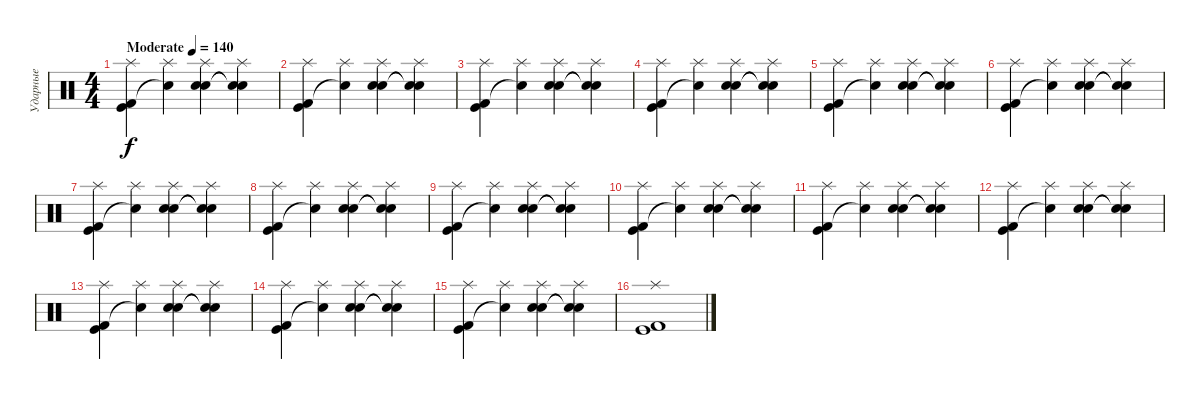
\track ("Ударные" "Ударные") {instrument percussion}
\staff {score}
\articulation defaults
\ts (4 4)
\tempo (140 "Moderate")
\clef neutral
\ks c
("Splash (hit)" "Kick (hit) 2" "Kick (hit)").4{dy f} ("Splash (hit)" "Snare (hit)"{t}).4 ("Splash (hit)" "Electric Snare (hit)" "Snare (hit) 2").4 ("Splash (hit)" "Snare (hit)"{t} "Snare (hit)"{t}).4 |
("Splash (hit)" "Kick (hit) 2" "Kick (hit)").4 ("Splash (hit)" "Snare (hit)"{t}).4 ("Splash (hit)" "Electric Snare (hit)" "Snare (hit) 2").4 ("Splash (hit)" "Snare (hit)"{t} "Snare (hit)"{t}).4 |
("Splash (hit)" "Kick (hit) 2" "Kick (hit)").4 ("Splash (hit)" "Snare (hit)"{t}).4 ("Splash (hit)" "Electric Snare (hit)" "Snare (hit) 2").4 ("Splash (hit)" "Snare (hit)"{t} "Snare (hit)"{t}).4 |
("Splash (hit)" "Kick (hit) 2" "Kick (hit)").4 ("Splash (hit)" "Snare (hit)"{t}).4 ("Splash (hit)" "Electric Snare (hit)" "Snare (hit) 2").4 ("Splash (hit)" "Snare (hit)"{t} "Snare (hit)"{t}).4 |
("Splash (hit)" "Kick (hit) 2" "Kick (hit)").4 ("Splash (hit)" "Snare (hit)"{t}).4 ("Splash (hit)" "Electric Snare (hit)" "Snare (hit) 2").4 ("Splash (hit)" "Snare (hit)"{t} "Snare (hit)"{t}).4 |
("Splash (hit)" "Kick (hit) 2" "Kick (hit)").4 ("Splash (hit)" "Snare (hit)"{t}).4 ("Splash (hit)" "Electric Snare (hit)" "Snare (hit) 2").4 ("Splash (hit)" "Snare (hit)"{t} "Snare (hit)"{t}).4 |
("Splash (hit)" "Kick (hit) 2" "Kick (hit)").4 ("Splash (hit)" "Snare (hit)"{t}).4 ("Splash (hit)" "Electric Snare (hit)" "Snare (hit) 2").4 ("Splash (hit)" "Snare (hit)"{t} "Snare (hit)"{t}).4 |
("Splash (hit)" "Kick (hit) 2" "Kick (hit)").4 ("Splash (hit)" "Snare (hit)"{t}).4 ("Splash (hit)" "Electric Snare (hit)" "Snare (hit) 2").4 ("Splash (hit)" "Snare (hit)"{t} "Snare (hit)"{t}).4 |
("Splash (hit)" "Kick (hit) 2" "Kick (hit)").4 ("Splash (hit)" "Snare (hit)"{t}).4 ("Splash (hit)" "Electric Snare (hit)" "Snare (hit) 2").4 ("Splash (hit)" "Snare (hit)"{t} "Snare (hit)"{t}).4 |
("Splash (hit)" "Kick (hit) 2" "Kick (hit)").4 ("Splash (hit)" "Snare (hit)"{t}).4 ("Splash (hit)" "Electric Snare (hit)" "Snare (hit) 2").4 ("Splash (hit)" "Snare (hit)"{t} "Snare (hit)"{t}).4 |
("Splash (hit)" "Kick (hit) 2" "Kick (hit)").4 ("Splash (hit)" "Snare (hit)"{t}).4 ("Splash (hit)" "Electric Snare (hit)" "Snare (hit) 2").4 ("Splash (hit)" "Snare (hit)"{t} "Snare (hit)"{t}).4 |
("Splash (hit)" "Kick (hit) 2" "Kick (hit)").4 ("Splash (hit)" "Snare (hit)"{t}).4 ("Splash (hit)" "Electric Snare (hit)" "Snare (hit) 2").4 ("Splash (hit)" "Snare (hit)"{t} "Snare (hit)"{t}).4 |
("Splash (hit)" "Kick (hit) 2" "Kick (hit)").4 ("Splash (hit)" "Snare (hit)"{t}).4 ("Splash (hit)" "Electric Snare (hit)" "Snare (hit) 2").4 ("Splash (hit)" "Snare (hit)"{t} "Snare (hit)"{t}).4 |
("Splash (hit)" "Kick (hit) 2" "Kick (hit)").4 ("Splash (hit)" "Snare (hit)"{t}).4 ("Splash (hit)" "Electric Snare (hit)" "Snare (hit) 2").4 ("Splash (hit)" "Snare (hit)"{t} "Snare (hit)"{t}).4 |
("Splash (hit)" "Kick (hit) 2" "Kick (hit)").4 ("Splash (hit)" "Snare (hit)"{t}).4 ("Splash (hit)" "Electric Snare (hit)" "Snare (hit) 2").4 ("Splash (hit)" "Snare (hit)"{t} "Snare (hit)"{t}).4 |
("Splash (hit)" "Kick (hit) 2" "Kick (hit)").1
